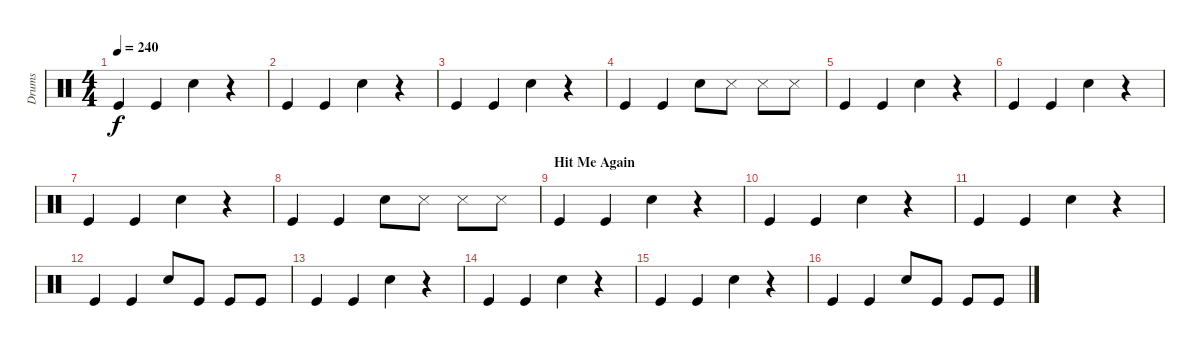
\track ("Drums" "Drums") {instrument percussion}
\staff {score}
\articulation defaults
\ts (4 4)
\tempo 240
\clef neutral
\ks c "Kick (hit)".4{dy f} "Kick (hit)".4 "Snare (hit) 2".4
r.4 |
"Kick (hit)".4 "Kick (hit)".4 "Snare (hit) 2".4 r.4 |
"Kick (hit)".4 "Kick (hit)".4 "Snare (hit) 2".4 r.4 |
"Kick (hit)".4 "Kick (hit)".4 "Snare (hit) 2".8 "Snare (side stick) 3".8 "Snare (side stick) 3".8 "Snare (side stick) 3".8 |
"Kick (hit)".4 "Kick (hit)".4 "Snare (hit) 2".4 r.4 |
"Kick (hit)".4 "Kick (hit)".4 "Snare (hit) 2".4 r.4 |
"Kick (hit)".4 "Kick (hit)".4 "Snare (hit) 2".4 r.4 |
"Kick (hit)".4 "Kick (hit)".4 "Snare (hit) 2".8 "Snare (side stick) 3".8 "Snare (side stick) 3".8 "Snare (side stick) 3".8 |
\section ("" "Hit Me Again")
"Kick (hit)".4 "Kick (hit)".4 "Snare (hit) 2".4 r.4 |
"Kick (hit)".4 "Kick (hit)".4 "Snare (hit) 2".4 r.4 |
"Kick (hit)".4 "Kick (hit)".4 "Snare (hit) 2".4 r.4 |
"Kick (hit)".4 "Kick (hit)".4 "Snare (hit) 2".8 "Kick (hit)".8 "Kick (hit)".8 "Kick (hit)".8 |
"Kick (hit)".4 "Kick (hit)".4 "Snare (hit) 2".4 r.4 |
"Kick (hit)".4 "Kick (hit)".4 "Snare (hit) 2".4 r.4 |
"Kick (hit)".4 "Kick (hit)".4 "Snare (hit) 2".4 r.4 |
"Kick (hit)".4 "Kick (hit)".4 "Snare (hit) 2".8 "Kick (hit)".8 "Kick (hit)".8 "Kick (hit)".8
